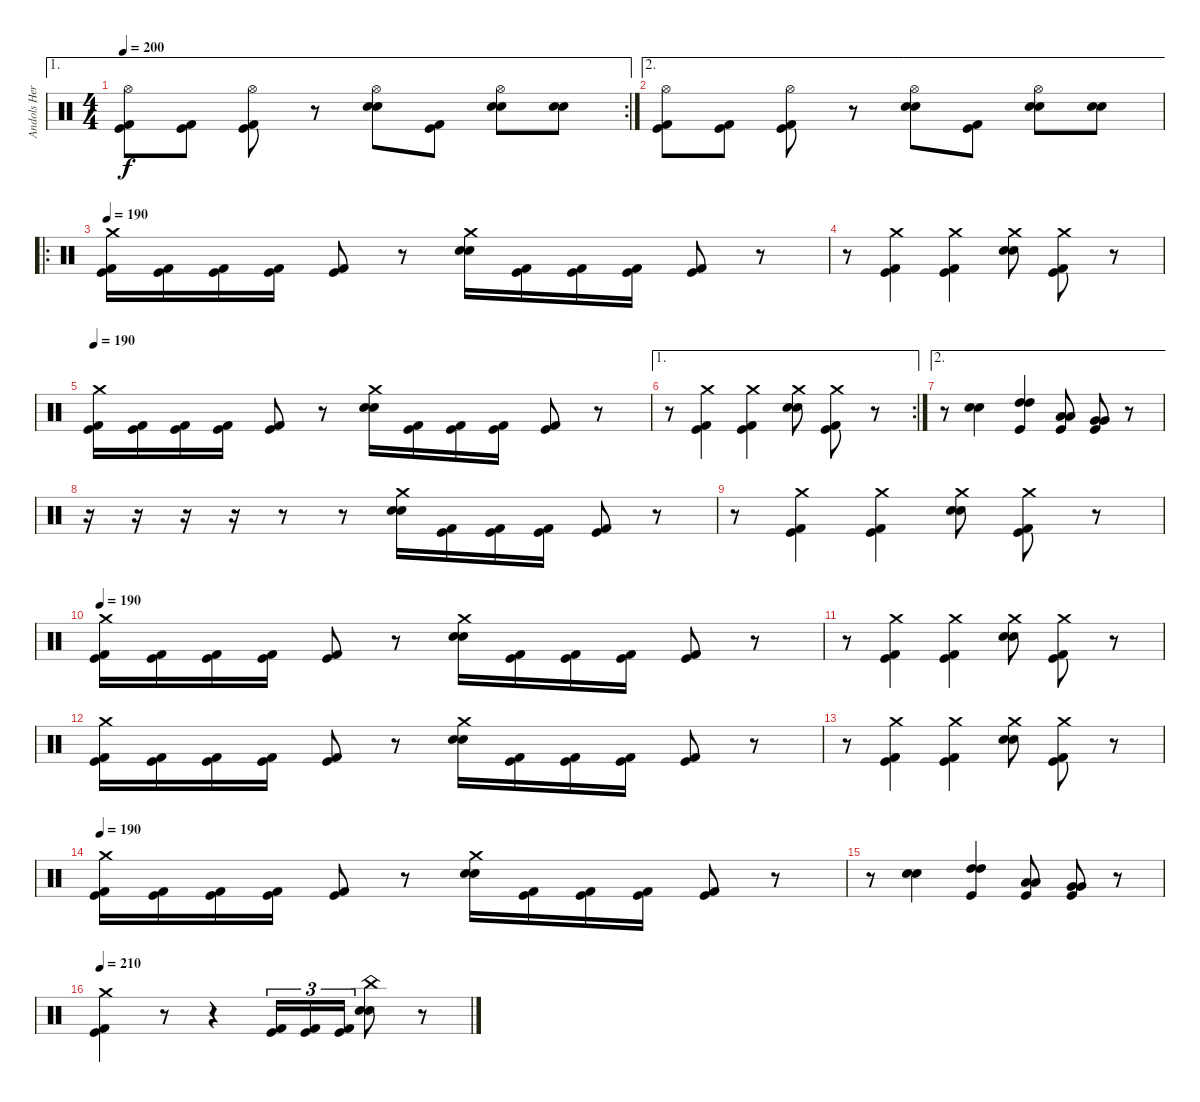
\track ("Andols Herrick" "Andols Her") {instrument percussion}
\staff {score}
\articulation defaults
\ae 1
\rc 2
\ts (4 4)
\tempo 200
\clef neutral
\ks c
("Hi-Hat (open)" "Kick (hit) 2" "Kick (hit)").8{dy f} ("Kick (hit) 2" "Kick (hit)").8 ("Hi-Hat (open)" "Kick (hit) 2" "Kick (hit)").8 r.8 ("Hi-Hat (open)" "Electric Snare (hit)" "Snare (hit) 2").8 ("Kick (hit) 2" "Kick (hit)").8 ("Hi-Hat (open)" "Electric Snare (hit)" "Snare (hit) 2").8 ("Electric Snare (hit)" "Snare (hit) 2").8 |
\ae 2
("Hi-Hat (open)" "Kick (hit) 2" "Kick (hit)").8 ("Kick (hit) 2" "Kick (hit)").8 ("Hi-Hat (open)" "Kick (hit) 2" "Kick (hit)").8 r.8 ("Hi-Hat (open)" "Electric Snare (hit)" "Snare (hit) 2").8 ("Kick (hit) 2" "Kick (hit)").8 ("Hi-Hat (open)" "Electric Snare (hit)" "Snare (hit) 2").8 ("Electric Snare (hit)" "Snare (hit) 2").8 |
\ro
\tempo 190
("Crash medium (hit)" "Kick (hit) 2" "Kick (hit)").16 ("Kick (hit) 2" "Kick (hit)").16 ("Kick (hit) 2" "Kick (hit)").16 ("Kick (hit) 2" "Kick (hit)").16 ("Kick (hit) 2" "Kick (hit)").8 r.8 ("Crash medium (hit)" "Electric Snare (hit)" "Snare (hit) 2").16 ("Kick (hit) 2" "Kick (hit)").16 ("Kick (hit) 2" "Kick (hit)").16 ("Kick (hit) 2" "Kick (hit)").16 ("Kick (hit) 2" "Kick (hit)").8 r.8 |
r.8 ("Crash medium (hit)" "Kick (hit) 2" "Kick (hit)").4 ("Crash medium (hit)" "Kick (hit) 2" "Kick (hit)").4 ("Crash medium (hit)" "Electric Snare (hit)" "Snare (hit) 2").8 ("Crash medium (hit)" "Kick (hit) 2" "Kick (hit)").8 r.8 |
\tempo 190
("Crash medium (hit)" "Kick (hit) 2" "Kick (hit)").16 ("Kick (hit) 2" "Kick (hit)").16 ("Kick (hit) 2" "Kick (hit)").16 ("Kick (hit) 2" "Kick (hit)").16 ("Kick (hit) 2" "Kick (hit)").8 r.8 ("Crash medium (hit)" "Electric Snare (hit)" "Snare (hit) 2").16 ("Kick (hit) 2" "Kick (hit)").16 ("Kick (hit) 2" "Kick (hit)").16 ("Kick (hit) 2" "Kick (hit)").16 ("Kick (hit) 2" "Kick (hit)").8 r.8 |
\ae 1
\rc 2
r.8 ("Crash medium (hit)" "Kick (hit) 2" "Kick (hit)").4 ("Crash medium (hit)" "Kick (hit) 2" "Kick (hit)").4 ("Crash medium (hit)" "Electric Snare (hit)" "Snare (hit) 2").8 ("Crash medium (hit)" "Kick (hit) 2" "Kick (hit)").8 r.8 |
\ae 2
r.8 ("Electric Snare (hit)" "Snare (hit) 2").4 ("High Tom (hit)" "High Tom (hit)" "Kick (hit)").4 ("Low Tom (hit)" "Low Tom (hit)" "Kick (hit)").8 ("Very Low Tom (hit)" "Very Low Tom (hit)" "Kick (hit)").8 r.8 |
r.16 r.16 r.16 r.16 r.8 r.8 ("Crash medium (hit)" "Electric Snare (hit)" "Snare (hit) 2").16 ("Kick (hit) 2" "Kick (hit)").16 ("Kick (hit) 2" "Kick (hit)").16 ("Kick (hit) 2" "Kick (hit)").16 ("Kick (hit) 2" "Kick (hit)").8 r.8 |
r.8 ("Crash medium (hit)" "Kick (hit) 2" "Kick (hit)").4 ("Crash medium (hit)" "Kick (hit) 2" "Kick (hit)").4 ("Crash medium (hit)" "Electric Snare (hit)" "Snare (hit) 2").8 ("Crash medium (hit)" "Kick (hit) 2" "Kick (hit)").8 r.8 |
\tempo 190
("Crash medium (hit)" "Kick (hit) 2" "Kick (hit)").16 ("Kick (hit) 2" "Kick (hit)").16 ("Kick (hit) 2" "Kick (hit)").16 ("Kick (hit) 2" "Kick (hit)").16 ("Kick (hit) 2" "Kick (hit)").8 r.8 ("Crash medium (hit)" "Electric Snare (hit)" "Snare (hit) 2").16 ("Kick (hit) 2" "Kick (hit)").16 ("Kick (hit) 2" "Kick (hit)").16 ("Kick (hit) 2" "Kick (hit)").16 ("Kick (hit) 2" "Kick (hit)").8 r.8 |
r.8 ("Crash medium (hit)" "Kick (hit) 2" "Kick (hit)").4 ("Crash medium (hit)" "Kick (hit) 2" "Kick (hit)").4 ("Crash medium (hit)" "Electric Snare (hit)" "Snare (hit) 2").8 ("Crash medium (hit)" "Kick (hit) 2" "Kick (hit)").8 r.8 |
("Crash medium (hit)" "Kick (hit) 2" "Kick (hit)").16 ("Kick (hit) 2" "Kick (hit)").16 ("Kick (hit) 2" "Kick (hit)").16 ("Kick (hit) 2" "Kick (hit)").16 ("Kick (hit) 2" "Kick (hit)").8 r.8 ("Crash medium (hit)" "Electric Snare (hit)" "Snare (hit) 2").16 ("Kick (hit) 2" "Kick (hit)").16 ("Kick (hit) 2" "Kick (hit)").16 ("Kick (hit) 2" "Kick (hit)").16 ("Kick (hit) 2" "Kick (hit)").8 r.8 |
r.8 ("Crash medium (hit)" "Kick (hit) 2" "Kick (hit)").4 ("Crash medium (hit)" "Kick (hit) 2" "Kick (hit)").4 ("Crash medium (hit)" "Electric Snare (hit)" "Snare (hit) 2").8 ("Crash medium (hit)" "Kick (hit) 2" "Kick (hit)").8 r.8 |
\tempo 190
("Crash medium (hit)" "Kick (hit) 2" "Kick (hit)").16 ("Kick (hit) 2" "Kick (hit)").16 ("Kick (hit) 2" "Kick (hit)").16 ("Kick (hit) 2" "Kick (hit)").16 ("Kick (hit) 2" "Kick (hit)").8 r.8 ("Crash medium (hit)" "Electric Snare (hit)" "Snare (hit) 2").16 ("Kick (hit) 2" "Kick (hit)").16 ("Kick (hit) 2" "Kick (hit)").16 ("Kick (hit) 2" "Kick (hit)").16 ("Kick (hit) 2" "Kick (hit)").8 r.8 |
r.8 ("Electric Snare (hit)" "Snare (hit) 2").4 ("High Tom (hit)" "High Tom (hit)" "Kick (hit)").4 ("Low Tom (hit)" "Low Tom (hit)" "Kick (hit)").8 ("Very Low Tom (hit)" "Very Low Tom (hit)" "Kick (hit)").8 r.8 |
\tempo 210
("Crash medium (hit)" "Kick (hit) 2" "Kick (hit)").4 r.8 r.4 ("Kick (hit) 2" "Kick (hit)").16{tu (3 2)} ("Kick (hit) 2" "Kick (hit)").16{tu (3 2)} ("Kick (hit) 2" "Kick (hit)").16{tu (3 2)} ("China (hit)" "Snare (hit) 2" "Electric Snare (hit)").8 r.8
